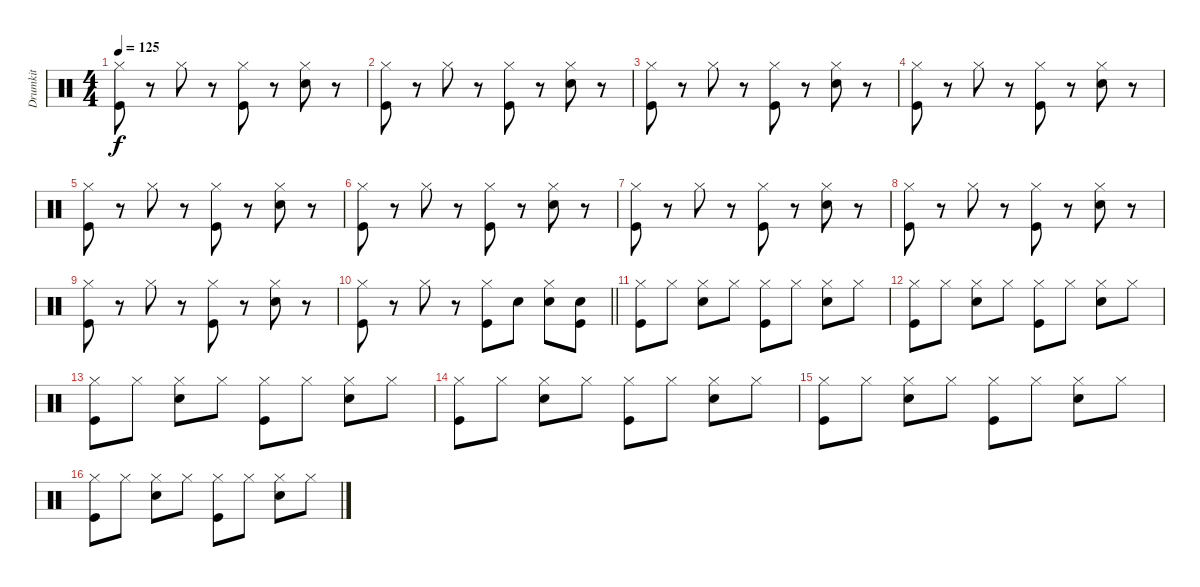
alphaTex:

\track ("Drumkit" "Drumkit") {instrument percussion}
\staff {score}
\articulation defaults
\ts (4 4)
\tempo 125
\clef neutral
\ks c
("Kick (hit)" "Hi-Hat (closed)").8{dy f} r.8 "Hi-Hat (closed)".8 r.8 ("Kick (hit)" "Hi-Hat (closed)").8 r.8 ("Snare (hit) 2" "Hi-Hat (closed)").8 r.8 |
("Kick (hit)" "Hi-Hat (closed)").8 r.8 "Hi-Hat (closed)".8 r.8 ("Kick (hit)" "Hi-Hat (closed)").8 r.8 ("Snare (hit) 2" "Hi-Hat (closed)").8 r.8 |
("Kick (hit)" "Hi-Hat (closed)").8 r.8 "Hi-Hat (closed)".8 r.8 ("Kick (hit)" "Hi-Hat (closed)").8 r.8 ("Snare (hit) 2" "Hi-Hat (closed)").8 r.8 |
("Kick (hit)" "Hi-Hat (closed)").8 r.8 "Hi-Hat (closed)".8 r.8 ("Kick (hit)" "Hi-Hat (closed)").8 r.8 ("Snare (hit) 2" "Hi-Hat (closed)").8 r.8 |
("Kick (hit)" "Hi-Hat (closed)").8 r.8 "Hi-Hat (closed)".8 r.8 ("Kick (hit)" "Hi-Hat (closed)").8 r.8 ("Snare (hit) 2" "Hi-Hat (closed)").8 r.8 |
("Kick (hit)" "Hi-Hat (closed)").8 r.8 "Hi-Hat (closed)".8 r.8 ("Kick (hit)" "Hi-Hat (closed)").8 r.8 ("Snare (hit) 2" "Hi-Hat (closed)").8 r.8 |
("Kick (hit)" "Hi-Hat (closed)").8 r.8 "Hi-Hat (closed)".8 r.8 ("Kick (hit)" "Hi-Hat (closed)").8 r.8 ("Snare (hit) 2" "Hi-Hat (closed)").8 r.8 |
("Kick (hit)" "Hi-Hat (closed)").8 r.8 "Hi-Hat (closed)".8 r.8 ("Kick (hit)" "Hi-Hat (closed)").8 r.8 ("Snare (hit) 2" "Hi-Hat (closed)").8 r.8 |
("Kick (hit)" "Hi-Hat (closed)").8 r.8 "Hi-Hat (closed)".8 r.8 ("Kick (hit)" "Hi-Hat (closed)").8 r.8 ("Snare (hit) 2" "Hi-Hat (closed)").8 r.8 |
\barLineRight lightlight
("Kick (hit)" "Hi-Hat (closed)").8 r.8 "Hi-Hat (closed)".8 r.8 ("Kick (hit)" "Hi-Hat (closed)").8 "Snare (hit) 2".8 ("Snare (hit) 2" "Hi-Hat (closed)").8 ("Snare (hit) 2" "Kick (hit)").8 |
("Kick (hit)" "Hi-Hat (closed)").8 "Hi-Hat (closed)".8 ("Snare (hit) 2" "Hi-Hat (closed)").8 "Hi-Hat (closed)".8 ("Kick (hit)" "Hi-Hat (closed)").8 "Hi-Hat (closed)".8 ("Snare (hit) 2" "Hi-Hat (closed)").8 "Hi-Hat (closed)".8 |
("Kick (hit)" "Hi-Hat (closed)").8 "Hi-Hat (closed)".8 ("Snare (hit) 2" "Hi-Hat (closed)").8 "Hi-Hat (closed)".8 ("Kick (hit)" "Hi-Hat (closed)").8 "Hi-Hat (closed)".8 ("Snare (hit) 2" "Hi-Hat (closed)").8 "Hi-Hat (closed)".8 |
("Kick (hit)" "Hi-Hat (closed)").8 "Hi-Hat (closed)".8 ("Snare (hit) 2" "Hi-Hat (closed)").8 "Hi-Hat (closed)".8 ("Kick (hit)" "Hi-Hat (closed)").8 "Hi-Hat (closed)".8 ("Snare (hit) 2" "Hi-Hat (closed)").8 "Hi-Hat (closed)".8 |
("Kick (hit)" "Hi-Hat (closed)").8 "Hi-Hat (closed)".8 ("Snare (hit) 2" "Hi-Hat (closed)").8 "Hi-Hat (closed)".8 ("Kick (hit)" "Hi-Hat (closed)").8 "Hi-Hat (closed)".8 ("Snare (hit) 2" "Hi-Hat (closed)").8 "Hi-Hat (closed)".8 |
("Kick (hit)" "Hi-Hat (closed)").8 "Hi-Hat (closed)".8 ("Snare (hit) 2" "Hi-Hat (closed)").8 "Hi-Hat (closed)".8 ("Kick (hit)" "Hi-Hat (closed)").8 "Hi-Hat (closed)".8 ("Snare (hit) 2" "Hi-Hat (closed)").8 "Hi-Hat (closed)".8 |
("Kick (hit)" "Hi-Hat (closed)").8 "Hi-Hat (closed)".8 ("Snare (hit) 2" "Hi-Hat (closed)").8 "Hi-Hat (closed)".8 ("Kick (hit)" "Hi-Hat (closed)").8 "Hi-Hat (closed)".8 ("Snare (hit) 2" "Hi-Hat (closed)").8 "Hi-Hat (closed)".8
